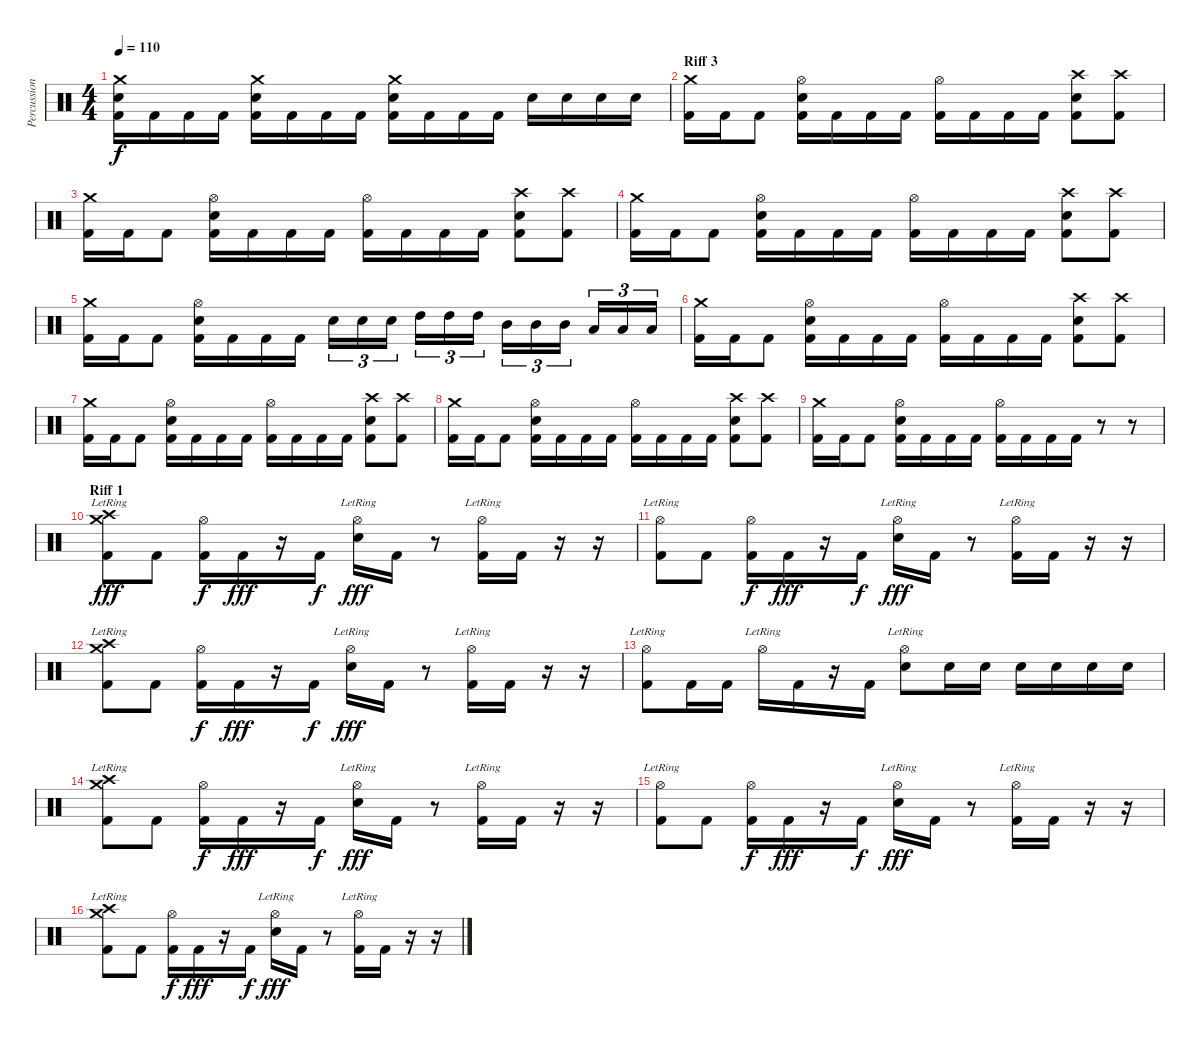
\track ("Percussions" "Percussion") {instrument percussion}
\staff {score}
\articulation defaults
\ts (4 4)
\tempo 110
\clef neutral
\ks c
("Crash medium (hit)" "Electric Snare (hit)" "Kick (hit) 2").16{dy f} "Kick (hit) 2".16 "Kick (hit) 2".16 "Kick (hit) 2".16 ("Crash medium (hit)" "Electric Snare (hit)" "Kick (hit) 2").16 "Kick (hit) 2".16 "Kick (hit) 2".16 "Kick (hit) 2".16 ("Crash medium (hit)" "Electric Snare (hit)" "Kick (hit) 2").16 "Kick (hit) 2".16 "Kick (hit) 2".16 "Kick (hit) 2".16 "Electric Snare (hit)".16 "Electric Snare (hit)".16 "Electric Snare (hit)".16 "Electric Snare (hit)".16 |
\section ("" "Riff 3")
("Crash medium (hit)" "Kick (hit) 2").16 "Kick (hit) 2".16 "Kick (hit) 2".8 ("Hi-Hat (open)" "Electric Snare (hit)" "Kick (hit) 2").16 "Kick (hit) 2".16 "Kick (hit) 2".16 "Kick (hit) 2".16 ("Hi-Hat (open)" "Kick (hit) 2").16 "Kick (hit) 2".16 "Kick (hit) 2".16 "Kick (hit) 2".16 ("Crash high (hit)" "Electric Snare (hit)" "Kick (hit) 2").8 ("Crash high (hit)" "Kick (hit) 2").8 |
("Crash medium (hit)" "Kick (hit) 2").16 "Kick (hit) 2".16 "Kick (hit) 2".8 ("Hi-Hat (open)" "Electric Snare (hit)" "Kick (hit) 2").16 "Kick (hit) 2".16 "Kick (hit) 2".16 "Kick (hit) 2".16 ("Hi-Hat (open)" "Kick (hit) 2").16 "Kick (hit) 2".16 "Kick (hit) 2".16 "Kick (hit) 2".16 ("Crash high (hit)" "Electric Snare (hit)" "Kick (hit) 2").8 ("Crash high (hit)" "Kick (hit) 2").8 |
("Crash medium (hit)" "Kick (hit) 2").16 "Kick (hit) 2".16 "Kick (hit) 2".8 ("Hi-Hat (open)" "Electric Snare (hit)" "Kick (hit) 2").16 "Kick (hit) 2".16 "Kick (hit) 2".16 "Kick (hit) 2".16 ("Hi-Hat (open)" "Kick (hit) 2").16 "Kick (hit) 2".16 "Kick (hit) 2".16 "Kick (hit) 2".16 ("Crash high (hit)" "Electric Snare (hit)" "Kick (hit) 2").8 ("Crash high (hit)" "Kick (hit) 2").8 |
("Crash medium (hit)" "Kick (hit) 2").16 "Kick (hit) 2".16 "Kick (hit) 2".8 ("Hi-Hat (open)" "Electric Snare (hit)" "Kick (hit) 2").16 "Kick (hit) 2".16 "Kick (hit) 2".16 "Kick (hit) 2".16 "Electric Snare (hit)".16{tu (3 2)} "Electric Snare (hit)".16{tu (3 2)} "Electric Snare (hit)".16{tu (3 2)} "High Tom (hit)".16{tu (3 2)} "High Tom (hit)".16{tu (3 2)} "High Tom (hit)".16{tu (3 2)} "Mid Tom (hit)".16{tu (3 2)} "Mid Tom (hit)".16{tu (3 2)} "Mid Tom (hit)".16{tu (3 2)} "Low Tom (hit)".16{tu (3 2)} "Low Tom (hit)".16{tu (3 2)} "Low Tom (hit)".16{tu (3 2)} |
("Crash medium (hit)" "Kick (hit) 2").16 "Kick (hit) 2".16 "Kick (hit) 2".8 ("Hi-Hat (open)" "Electric Snare (hit)" "Kick (hit) 2").16 "Kick (hit) 2".16 "Kick (hit) 2".16 "Kick (hit) 2".16 ("Hi-Hat (open)" "Kick (hit) 2").16 "Kick (hit) 2".16 "Kick (hit) 2".16 "Kick (hit) 2".16 ("Crash high (hit)" "Electric Snare (hit)" "Kick (hit) 2").8 ("Crash high (hit)" "Kick (hit) 2").8 |
("Crash medium (hit)" "Kick (hit) 2").16 "Kick (hit) 2".16 "Kick (hit) 2".8 ("Hi-Hat (open)" "Electric Snare (hit)" "Kick (hit) 2").16 "Kick (hit) 2".16 "Kick (hit) 2".16 "Kick (hit) 2".16 ("Hi-Hat (open)" "Kick (hit) 2").16 "Kick (hit) 2".16 "Kick (hit) 2".16 "Kick (hit) 2".16 ("Crash high (hit)" "Electric Snare (hit)" "Kick (hit) 2").8 ("Crash high (hit)" "Kick (hit) 2").8 |
("Crash medium (hit)" "Kick (hit) 2").16 "Kick (hit) 2".16 "Kick (hit) 2".8 ("Hi-Hat (open)" "Electric Snare (hit)" "Kick (hit) 2").16 "Kick (hit) 2".16 "Kick (hit) 2".16 "Kick (hit) 2".16 ("Hi-Hat (open)" "Kick (hit) 2").16 "Kick (hit) 2".16 "Kick (hit) 2".16 "Kick (hit) 2".16 ("Crash high (hit)" "Electric Snare (hit)" "Kick (hit) 2").8 ("Crash high (hit)" "Kick (hit) 2").8 |
("Crash medium (hit)" "Kick (hit) 2").16 "Kick (hit) 2".16 "Kick (hit) 2".8 ("Hi-Hat (open)" "Electric Snare (hit)" "Kick (hit) 2").16 "Kick (hit) 2".16 "Kick (hit) 2".16 "Kick (hit) 2".16 ("Hi-Hat (open)" "Kick (hit) 2").16 "Kick (hit) 2".16 "Kick (hit) 2".16 "Kick (hit) 2".16 r.8 r.8 |
\section ("" "Riff 1")
("Crash high (hit)"{lr} "Crash medium (hit)"{lr} "Kick (hit) 2").8{dy fff} "Kick (hit) 2".8 ("Hi-Hat (open)" "Kick (hit) 2").16{dy f} "Kick (hit) 2".16{dy fff} r.16 "Kick (hit) 2".16{dy f} ("Hi-Hat (open)"{lr} "Electric Snare (hit)").16{dy fff} "Kick (hit) 2".16 r.8 ("Hi-Hat (open)"{lr} "Kick (hit) 2").16 "Kick (hit) 2".16 r.16 r.16 |
("Hi-Hat (open)"{lr} "Kick (hit) 2").8 "Kick (hit) 2".8 ("Hi-Hat (open)" "Kick (hit) 2").16{dy f} "Kick (hit) 2".16{dy fff} r.16 "Kick (hit) 2".16{dy f} ("Hi-Hat (open)"{lr} "Electric Snare (hit)").16{dy fff} "Kick (hit) 2".16 r.8 ("Hi-Hat (open)"{lr} "Kick (hit) 2").16 "Kick (hit) 2".16 r.16 r.16 |
("Crash high (hit)"{lr} "Crash medium (hit)"{lr} "Kick (hit) 2").8 "Kick (hit) 2".8 ("Hi-Hat (open)" "Kick (hit) 2").16{dy f} "Kick (hit) 2".16{dy fff} r.16 "Kick (hit) 2".16{dy f} ("Hi-Hat (open)"{lr} "Electric Snare (hit)").16{dy fff} "Kick (hit) 2".16 r.8 ("Hi-Hat (open)"{lr} "Kick (hit) 2").16 "Kick (hit) 2".16 r.16 r.16 |
("Hi-Hat (open)"{lr} "Kick (hit) 2").8 "Kick (hit) 2".16 "Kick (hit) 2".16 "Hi-Hat (open)"{lr}.16 "Kick (hit) 2".16 r.16 "Kick (hit) 2".16 ("Hi-Hat (open)"{lr} "Electric Snare (hit)").8 "Electric Snare (hit)".16 "Electric Snare (hit)".16 "Electric Snare (hit)".16 "Electric Snare (hit)".16 "Electric Snare (hit)".16 "Electric Snare (hit)".16 |
("Crash high (hit)"{lr} "Crash medium (hit)"{lr} "Kick (hit) 2").8 "Kick (hit) 2".8 ("Hi-Hat (open)" "Kick (hit) 2").16{dy f} "Kick (hit) 2".16{dy fff} r.16 "Kick (hit) 2".16{dy f} ("Hi-Hat (open)"{lr} "Electric Snare (hit)").16{dy fff} "Kick (hit) 2".16 r.8 ("Hi-Hat (open)"{lr} "Kick (hit) 2").16 "Kick (hit) 2".16 r.16 r.16 |
("Hi-Hat (open)"{lr} "Kick (hit) 2").8 "Kick (hit) 2".8 ("Hi-Hat (open)" "Kick (hit) 2").16{dy f} "Kick (hit) 2".16{dy fff} r.16 "Kick (hit) 2".16{dy f} ("Hi-Hat (open)"{lr} "Electric Snare (hit)").16{dy fff} "Kick (hit) 2".16 r.8 ("Hi-Hat (open)"{lr} "Kick (hit) 2").16 "Kick (hit) 2".16 r.16 r.16 |
("Crash high (hit)"{lr} "Crash medium (hit)"{lr} "Kick (hit) 2").8 "Kick (hit) 2".8 ("Hi-Hat (open)" "Kick (hit) 2").16{dy f} "Kick (hit) 2".16{dy fff} r.16 "Kick (hit) 2".16{dy f} ("Hi-Hat (open)"{lr} "Electric Snare (hit)").16{dy fff} "Kick (hit) 2".16 r.8 ("Hi-Hat (open)"{lr} "Kick (hit) 2").16 "Kick (hit) 2".16 r.16 r.16
